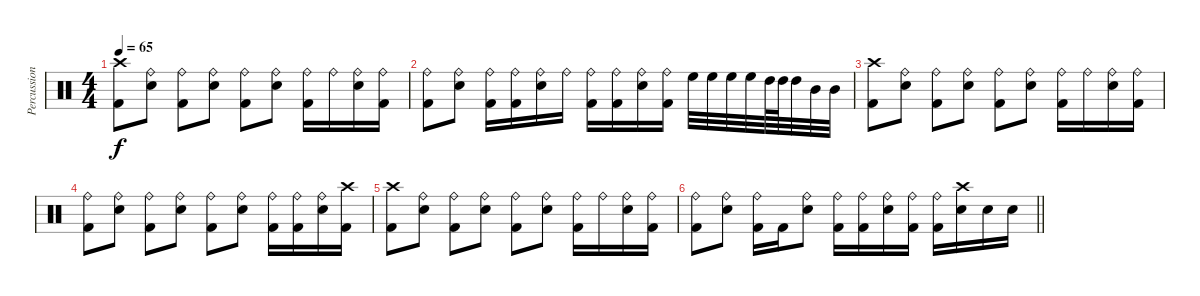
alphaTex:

\track ("Percussion" "Percussion") {instrument percussion}
\staff {score}
\articulation defaults
\ts (4 4)
\tempo 65
\clef neutral
\ks c
("Crash high (hit)" "Kick (hit) 2").8{dy f} ("Ride (bell)" "Electric Snare (hit)").8 ("Ride (bell)" "Kick (hit) 2").8 ("Ride (bell)" "Electric Snare (hit)").8 ("Ride (bell)" "Kick (hit) 2").8 ("Ride (bell)" "Electric Snare (hit)").8 ("Ride (bell)" "Kick (hit) 2").16 "Ride (bell)".16 ("Ride (bell)" "Electric Snare (hit)").16 ("Ride (bell)" "Kick (hit) 2").16 |
("Ride (bell)" "Kick (hit) 2").8 ("Ride (bell)" "Electric Snare (hit)").8 ("Ride (bell)" "Kick (hit) 2").16 ("Ride (bell)" "Kick (hit) 2").16 ("Ride (bell)" "Electric Snare (hit)").16 "Ride (bell)".16 ("Ride (bell)" "Kick (hit) 2").16 ("Ride (bell)" "Kick (hit) 2").16 ("Ride (bell)" "Electric Snare (hit)").16 ("Ride (bell)" "Kick (hit) 2").16 "High Floor Tom (hit)".32 "High Floor Tom (hit)".32 "High Floor Tom (hit)".32 "High Floor Tom (hit)".32 "High Tom (hit)".64 "High Tom (hit)".64 "High Tom (hit)".32 "Mid Tom (hit)".32 "Mid Tom (hit)".32 |
("Crash high (hit)" "Kick (hit) 2").8 ("Ride (bell)" "Electric Snare (hit)").8 ("Ride (bell)" "Kick (hit) 2").8 ("Ride (bell)" "Electric Snare (hit)").8 ("Ride (bell)" "Kick (hit) 2").8 ("Ride (bell)" "Electric Snare (hit)").8 ("Ride (bell)" "Kick (hit) 2").16 "Ride (bell)".16 ("Ride (bell)" "Electric Snare (hit)").16 ("Ride (bell)" "Kick (hit) 2").16 |
("Ride (bell)" "Kick (hit) 2").8 ("Ride (bell)" "Electric Snare (hit)").8 ("Ride (bell)" "Kick (hit) 2").8 ("Ride (bell)" "Electric Snare (hit)").8 ("Ride (bell)" "Kick (hit) 2").8 ("Ride (bell)" "Electric Snare (hit)").8 ("Ride (bell)" "Kick (hit) 2").16 ("Ride (bell)" "Kick (hit) 2").16 ("Ride (bell)" "Electric Snare (hit)").16 ("Crash high (hit)" "Kick (hit) 2").16 |
("Crash high (hit)" "Kick (hit) 2").8 ("Ride (bell)" "Electric Snare (hit)").8 ("Ride (bell)" "Kick (hit) 2").8 ("Ride (bell)" "Electric Snare (hit)").8 ("Ride (bell)" "Kick (hit) 2").8 ("Ride (bell)" "Electric Snare (hit)").8 ("Ride (bell)" "Kick (hit) 2").16 "Ride (bell)".16 ("Ride (bell)" "Electric Snare (hit)").16 ("Ride (bell)" "Kick (hit) 2").16 |
\barLineRight lightlight
("Ride (bell)" "Kick (hit) 2").8 ("Ride (bell)" "Electric Snare (hit)").8 ("Ride (bell)" "Kick (hit) 2").16 "Kick (hit) 2".16 ("Ride (bell)" "Electric Snare (hit)").8 ("Ride (bell)" "Kick (hit) 2").16 ("Ride (bell)" "Kick (hit) 2").16 ("Ride (bell)" "Electric Snare (hit)").16 ("Ride (bell)" "Kick (hit) 2").16 ("Ride (bell)" "Kick (hit) 2").16 ("Crash high (hit)" "Electric Snare (hit)").16 "Electric Snare (hit)".16 "Electric Snare (hit)".16
